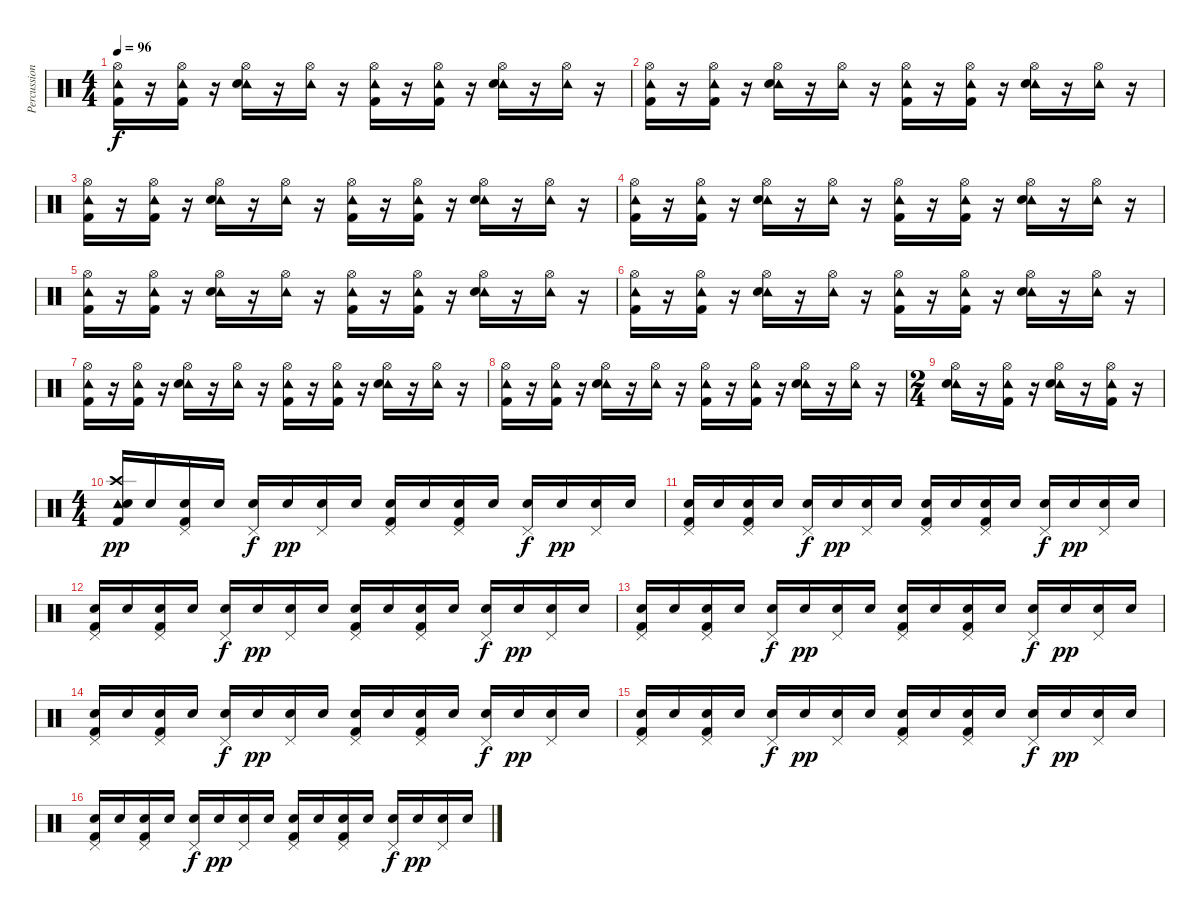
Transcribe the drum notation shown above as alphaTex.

\track ("Percussions" "Percussion") {instrument percussion}
\staff {score}
\articulation defaults
\ts (4 4)
\tempo 96
\clef neutral
\ks c
("Hi-Hat (open)" "Tambourine (hit)" "Kick (hit) 2").16{dy f} r.16 ("Hi-Hat (open)" "Tambourine (hit)" "Kick (hit) 2").16 r.16 ("Hi-Hat (open)" "Tambourine (hit)" "Electric Snare (hit)").16 r.16 ("Hi-Hat (open)" "Tambourine (hit)").16 r.16 ("Hi-Hat (open)" "Tambourine (hit)" "Kick (hit) 2").16 r.16 ("Hi-Hat (open)" "Tambourine (hit)" "Kick (hit) 2").16 r.16 ("Hi-Hat (open)" "Tambourine (hit)" "Electric Snare (hit)").16 r.16 ("Hi-Hat (open)" "Tambourine (hit)").16 r.16 |
("Hi-Hat (open)" "Tambourine (hit)" "Kick (hit) 2").16 r.16 ("Hi-Hat (open)" "Tambourine (hit)" "Kick (hit) 2").16 r.16 ("Hi-Hat (open)" "Tambourine (hit)" "Electric Snare (hit)").16 r.16 ("Hi-Hat (open)" "Tambourine (hit)").16 r.16 ("Hi-Hat (open)" "Tambourine (hit)" "Kick (hit) 2").16 r.16 ("Hi-Hat (open)" "Tambourine (hit)" "Kick (hit) 2").16 r.16 ("Hi-Hat (open)" "Tambourine (hit)" "Electric Snare (hit)").16 r.16 ("Hi-Hat (open)" "Tambourine (hit)").16 r.16 |
("Hi-Hat (open)" "Tambourine (hit)" "Kick (hit) 2").16 r.16 ("Hi-Hat (open)" "Tambourine (hit)" "Kick (hit) 2").16 r.16 ("Hi-Hat (open)" "Tambourine (hit)" "Electric Snare (hit)").16 r.16 ("Hi-Hat (open)" "Tambourine (hit)").16 r.16 ("Hi-Hat (open)" "Tambourine (hit)" "Kick (hit) 2").16 r.16 ("Hi-Hat (open)" "Tambourine (hit)" "Kick (hit) 2").16 r.16 ("Hi-Hat (open)" "Tambourine (hit)" "Electric Snare (hit)").16 r.16 ("Hi-Hat (open)" "Tambourine (hit)").16 r.16 |
("Hi-Hat (open)" "Tambourine (hit)" "Kick (hit) 2").16 r.16 ("Hi-Hat (open)" "Tambourine (hit)" "Kick (hit) 2").16 r.16 ("Hi-Hat (open)" "Tambourine (hit)" "Electric Snare (hit)").16 r.16 ("Hi-Hat (open)" "Tambourine (hit)").16 r.16 ("Hi-Hat (open)" "Tambourine (hit)" "Kick (hit) 2").16 r.16 ("Hi-Hat (open)" "Tambourine (hit)" "Kick (hit) 2").16 r.16 ("Hi-Hat (open)" "Tambourine (hit)" "Electric Snare (hit)").16 r.16 ("Hi-Hat (open)" "Tambourine (hit)").16 r.16 |
("Hi-Hat (open)" "Tambourine (hit)" "Kick (hit) 2").16 r.16 ("Hi-Hat (open)" "Tambourine (hit)" "Kick (hit) 2").16 r.16 ("Hi-Hat (open)" "Tambourine (hit)" "Electric Snare (hit)").16 r.16 ("Hi-Hat (open)" "Tambourine (hit)").16 r.16 ("Hi-Hat (open)" "Tambourine (hit)" "Kick (hit) 2").16 r.16 ("Hi-Hat (open)" "Tambourine (hit)" "Kick (hit) 2").16 r.16 ("Hi-Hat (open)" "Tambourine (hit)" "Electric Snare (hit)").16 r.16 ("Hi-Hat (open)" "Tambourine (hit)").16 r.16 |
("Hi-Hat (open)" "Tambourine (hit)" "Kick (hit) 2").16 r.16 ("Hi-Hat (open)" "Tambourine (hit)" "Kick (hit) 2").16 r.16 ("Hi-Hat (open)" "Tambourine (hit)" "Electric Snare (hit)").16 r.16 ("Hi-Hat (open)" "Tambourine (hit)").16 r.16 ("Hi-Hat (open)" "Tambourine (hit)" "Kick (hit) 2").16 r.16 ("Hi-Hat (open)" "Tambourine (hit)" "Kick (hit) 2").16 r.16 ("Hi-Hat (open)" "Tambourine (hit)" "Electric Snare (hit)").16 r.16 ("Hi-Hat (open)" "Tambourine (hit)").16 r.16 |
("Hi-Hat (open)" "Tambourine (hit)" "Kick (hit) 2").16 r.16 ("Hi-Hat (open)" "Tambourine (hit)" "Kick (hit) 2").16 r.16 ("Hi-Hat (open)" "Tambourine (hit)" "Electric Snare (hit)").16 r.16 ("Hi-Hat (open)" "Tambourine (hit)").16 r.16 ("Hi-Hat (open)" "Tambourine (hit)" "Kick (hit) 2").16 r.16 ("Hi-Hat (open)" "Tambourine (hit)" "Kick (hit) 2").16 r.16 ("Hi-Hat (open)" "Tambourine (hit)" "Electric Snare (hit)").16 r.16 ("Hi-Hat (open)" "Tambourine (hit)").16 r.16 |
("Hi-Hat (open)" "Tambourine (hit)" "Kick (hit) 2").16 r.16 ("Hi-Hat (open)" "Tambourine (hit)" "Kick (hit) 2").16 r.16 ("Hi-Hat (open)" "Tambourine (hit)" "Electric Snare (hit)").16 r.16 ("Hi-Hat (open)" "Tambourine (hit)").16 r.16 ("Hi-Hat (open)" "Tambourine (hit)" "Kick (hit) 2").16 r.16 ("Hi-Hat (open)" "Tambourine (hit)" "Kick (hit) 2").16 r.16 ("Hi-Hat (open)" "Tambourine (hit)" "Electric Snare (hit)").16 r.16 ("Hi-Hat (open)" "Tambourine (hit)").16 r.16 |
\ts (2 4)
("Hi-Hat (open)" "Tambourine (hit)" "Electric Snare (hit)").16 r.16 ("Hi-Hat (open)" "Tambourine (hit)" "Kick (hit) 2").16 r.16 ("Hi-Hat (open)" "Tambourine (hit)" "Electric Snare (hit)").16 r.16 ("Hi-Hat (open)" "Tambourine (hit)" "Kick (hit) 2").16 r.16 |
\ts (4 4)
("Crash high (hit)" "Tambourine (hit)" "Snare (hit) 2" "Kick (hit) 2").16{dy pp} "Snare (hit) 2".16 ("Pedal Hi-Hat (hit)" "Snare (hit) 2" "Kick (hit) 2").16 "Snare (hit) 2".16 ("Pedal Hi-Hat (hit)" "Electric Snare (hit)").16{dy f} "Snare (hit) 2".16{dy pp} ("Pedal Hi-Hat (hit)" "Snare (hit) 2").16 "Snare (hit) 2".16 ("Pedal Hi-Hat (hit)" "Snare (hit) 2" "Kick (hit) 2").16 "Snare (hit) 2".16 ("Pedal Hi-Hat (hit)" "Snare (hit) 2" "Kick (hit) 2").16 "Snare (hit) 2".16 ("Pedal Hi-Hat (hit)" "Electric Snare (hit)").16{dy f} "Snare (hit) 2".16{dy pp} ("Pedal Hi-Hat (hit)" "Snare (hit) 2").16 "Snare (hit) 2".16 |
("Pedal Hi-Hat (hit)" "Snare (hit) 2" "Kick (hit) 2").16 "Snare (hit) 2".16 ("Pedal Hi-Hat (hit)" "Snare (hit) 2" "Kick (hit) 2").16 "Snare (hit) 2".16 ("Pedal Hi-Hat (hit)" "Electric Snare (hit)").16{dy f} "Snare (hit) 2".16{dy pp} ("Pedal Hi-Hat (hit)" "Snare (hit) 2").16 "Snare (hit) 2".16 ("Pedal Hi-Hat (hit)" "Snare (hit) 2" "Kick (hit) 2").16 "Snare (hit) 2".16 ("Pedal Hi-Hat (hit)" "Snare (hit) 2" "Kick (hit) 2").16 "Snare (hit) 2".16 ("Pedal Hi-Hat (hit)" "Electric Snare (hit)").16{dy f} "Snare (hit) 2".16{dy pp} ("Pedal Hi-Hat (hit)" "Snare (hit) 2").16 "Snare (hit) 2".16 |
("Pedal Hi-Hat (hit)" "Snare (hit) 2" "Kick (hit) 2").16 "Snare (hit) 2".16 ("Pedal Hi-Hat (hit)" "Snare (hit) 2" "Kick (hit) 2").16 "Snare (hit) 2".16 ("Pedal Hi-Hat (hit)" "Electric Snare (hit)").16{dy f} "Snare (hit) 2".16{dy pp} ("Pedal Hi-Hat (hit)" "Snare (hit) 2").16 "Snare (hit) 2".16 ("Pedal Hi-Hat (hit)" "Snare (hit) 2" "Kick (hit) 2").16 "Snare (hit) 2".16 ("Pedal Hi-Hat (hit)" "Snare (hit) 2" "Kick (hit) 2").16 "Snare (hit) 2".16 ("Pedal Hi-Hat (hit)" "Electric Snare (hit)").16{dy f} "Snare (hit) 2".16{dy pp} ("Pedal Hi-Hat (hit)" "Snare (hit) 2").16 "Snare (hit) 2".16 |
("Pedal Hi-Hat (hit)" "Snare (hit) 2" "Kick (hit) 2").16 "Snare (hit) 2".16 ("Pedal Hi-Hat (hit)" "Snare (hit) 2" "Kick (hit) 2").16 "Snare (hit) 2".16 ("Pedal Hi-Hat (hit)" "Electric Snare (hit)").16{dy f} "Snare (hit) 2".16{dy pp} ("Pedal Hi-Hat (hit)" "Snare (hit) 2").16 "Snare (hit) 2".16 ("Pedal Hi-Hat (hit)" "Snare (hit) 2" "Kick (hit) 2").16 "Snare (hit) 2".16 ("Pedal Hi-Hat (hit)" "Snare (hit) 2" "Kick (hit) 2").16 "Snare (hit) 2".16 ("Pedal Hi-Hat (hit)" "Electric Snare (hit)").16{dy f} "Snare (hit) 2".16{dy pp} ("Pedal Hi-Hat (hit)" "Snare (hit) 2").16 "Snare (hit) 2".16 |
("Pedal Hi-Hat (hit)" "Snare (hit) 2" "Kick (hit) 2").16 "Snare (hit) 2".16 ("Pedal Hi-Hat (hit)" "Snare (hit) 2" "Kick (hit) 2").16 "Snare (hit) 2".16 ("Pedal Hi-Hat (hit)" "Electric Snare (hit)").16{dy f} "Snare (hit) 2".16{dy pp} ("Pedal Hi-Hat (hit)" "Snare (hit) 2").16 "Snare (hit) 2".16 ("Pedal Hi-Hat (hit)" "Snare (hit) 2" "Kick (hit) 2").16 "Snare (hit) 2".16 ("Pedal Hi-Hat (hit)" "Snare (hit) 2" "Kick (hit) 2").16 "Snare (hit) 2".16 ("Pedal Hi-Hat (hit)" "Electric Snare (hit)").16{dy f} "Snare (hit) 2".16{dy pp} ("Pedal Hi-Hat (hit)" "Snare (hit) 2").16 "Snare (hit) 2".16 |
("Pedal Hi-Hat (hit)" "Snare (hit) 2" "Kick (hit) 2").16 "Snare (hit) 2".16 ("Pedal Hi-Hat (hit)" "Snare (hit) 2" "Kick (hit) 2").16 "Snare (hit) 2".16 ("Pedal Hi-Hat (hit)" "Electric Snare (hit)").16{dy f} "Snare (hit) 2".16{dy pp} ("Pedal Hi-Hat (hit)" "Snare (hit) 2").16 "Snare (hit) 2".16 ("Pedal Hi-Hat (hit)" "Snare (hit) 2" "Kick (hit) 2").16 "Snare (hit) 2".16 ("Pedal Hi-Hat (hit)" "Snare (hit) 2" "Kick (hit) 2").16 "Snare (hit) 2".16 ("Pedal Hi-Hat (hit)" "Electric Snare (hit)").16{dy f} "Snare (hit) 2".16{dy pp} ("Pedal Hi-Hat (hit)" "Snare (hit) 2").16 "Snare (hit) 2".16 |
("Pedal Hi-Hat (hit)" "Snare (hit) 2" "Kick (hit) 2").16 "Snare (hit) 2".16 ("Pedal Hi-Hat (hit)" "Snare (hit) 2" "Kick (hit) 2").16 "Snare (hit) 2".16 ("Pedal Hi-Hat (hit)" "Electric Snare (hit)").16{dy f} "Snare (hit) 2".16{dy pp} ("Pedal Hi-Hat (hit)" "Snare (hit) 2").16 "Snare (hit) 2".16 ("Pedal Hi-Hat (hit)" "Snare (hit) 2" "Kick (hit) 2").16 "Snare (hit) 2".16 ("Pedal Hi-Hat (hit)" "Snare (hit) 2" "Kick (hit) 2").16 "Snare (hit) 2".16 ("Pedal Hi-Hat (hit)" "Electric Snare (hit)").16{dy f} "Snare (hit) 2".16{dy pp} ("Pedal Hi-Hat (hit)" "Snare (hit) 2").16 "Snare (hit) 2".16
